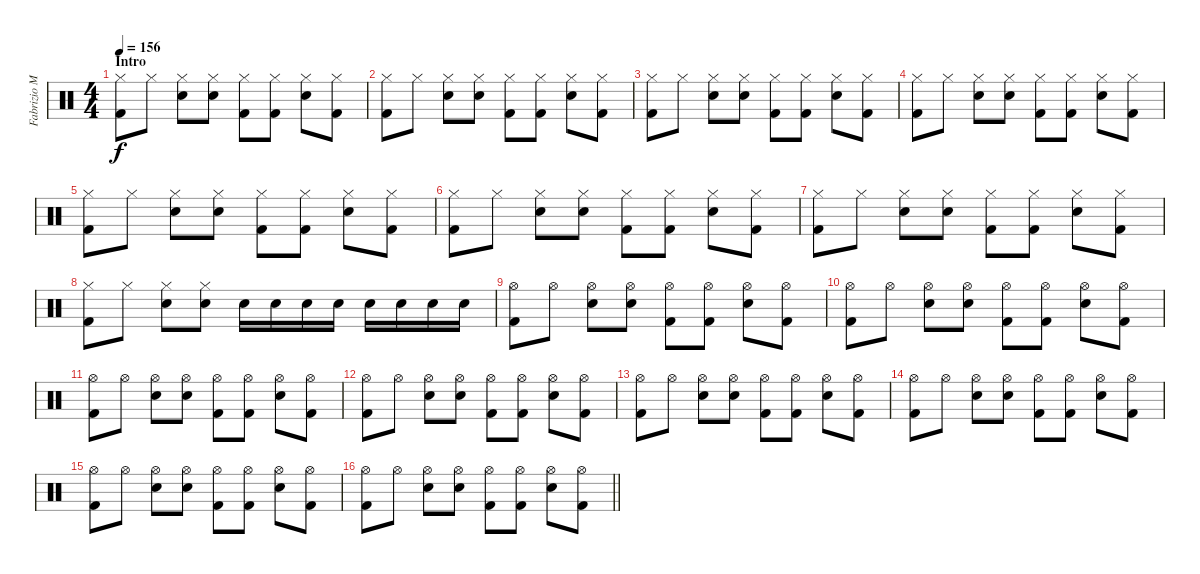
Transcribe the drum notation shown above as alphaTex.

\track ("Fabrizio Moretti" "Fabrizio M") {instrument percussion}
\staff {score}
\articulation defaults
\ts (4 4)
\section ("" "Intro")
\tempo 156
\clef neutral
\ks c
("Hi-Hat (closed)" "Kick (hit) 2").8{dy f} "Hi-Hat (closed)".8 ("Hi-Hat (closed)" "Snare (hit) 2").8 ("Hi-Hat (closed)" "Snare (hit) 2").8 ("Hi-Hat (closed)" "Kick (hit) 2").8 ("Hi-Hat (closed)" "Kick (hit) 2").8 ("Hi-Hat (closed)" "Snare (hit) 2").8 ("Hi-Hat (closed)" "Kick (hit) 2").8 |
("Hi-Hat (closed)" "Kick (hit) 2").8 "Hi-Hat (closed)".8 ("Hi-Hat (closed)" "Snare (hit) 2").8 ("Hi-Hat (closed)" "Snare (hit) 2").8 ("Hi-Hat (closed)" "Kick (hit) 2").8 ("Hi-Hat (closed)" "Kick (hit) 2").8 ("Hi-Hat (closed)" "Snare (hit) 2").8 ("Hi-Hat (closed)" "Kick (hit) 2").8 |
("Hi-Hat (closed)" "Kick (hit) 2").8 "Hi-Hat (closed)".8 ("Hi-Hat (closed)" "Snare (hit) 2").8 ("Hi-Hat (closed)" "Snare (hit) 2").8 ("Hi-Hat (closed)" "Kick (hit) 2").8 ("Hi-Hat (closed)" "Kick (hit) 2").8 ("Hi-Hat (closed)" "Snare (hit) 2").8 ("Hi-Hat (closed)" "Kick (hit) 2").8 |
("Hi-Hat (closed)" "Kick (hit) 2").8 "Hi-Hat (closed)".8 ("Hi-Hat (closed)" "Snare (hit) 2").8 ("Hi-Hat (closed)" "Snare (hit) 2").8 ("Hi-Hat (closed)" "Kick (hit) 2").8 ("Hi-Hat (closed)" "Kick (hit) 2").8 ("Hi-Hat (closed)" "Snare (hit) 2").8 ("Hi-Hat (closed)" "Kick (hit) 2").8 |
("Hi-Hat (closed)" "Kick (hit) 2").8 "Hi-Hat (closed)".8 ("Hi-Hat (closed)" "Snare (hit) 2").8 ("Hi-Hat (closed)" "Snare (hit) 2").8 ("Hi-Hat (closed)" "Kick (hit) 2").8 ("Hi-Hat (closed)" "Kick (hit) 2").8 ("Hi-Hat (closed)" "Snare (hit) 2").8 ("Hi-Hat (closed)" "Kick (hit) 2").8 |
("Hi-Hat (closed)" "Kick (hit) 2").8 "Hi-Hat (closed)".8 ("Hi-Hat (closed)" "Snare (hit) 2").8 ("Hi-Hat (closed)" "Snare (hit) 2").8 ("Hi-Hat (closed)" "Kick (hit) 2").8 ("Hi-Hat (closed)" "Kick (hit) 2").8 ("Hi-Hat (closed)" "Snare (hit) 2").8 ("Hi-Hat (closed)" "Kick (hit) 2").8 |
("Hi-Hat (closed)" "Kick (hit) 2").8 "Hi-Hat (closed)".8 ("Hi-Hat (closed)" "Snare (hit) 2").8 ("Hi-Hat (closed)" "Snare (hit) 2").8 ("Hi-Hat (closed)" "Kick (hit) 2").8 ("Hi-Hat (closed)" "Kick (hit) 2").8 ("Hi-Hat (closed)" "Snare (hit) 2").8 ("Hi-Hat (closed)" "Kick (hit) 2").8 |
("Hi-Hat (closed)" "Kick (hit) 2").8 "Hi-Hat (closed)".8 ("Hi-Hat (closed)" "Snare (hit) 2").8 ("Hi-Hat (closed)" "Snare (hit) 2").8 "Snare (hit) 2".16 "Snare (hit) 2".16 "Snare (hit) 2".16 "Snare (hit) 2".16 "Snare (hit) 2".16 "Snare (hit) 2".16 "Snare (hit) 2".16 "Snare (hit) 2".16 |
("Hi-Hat (open)" "Kick (hit) 2").8 "Hi-Hat (open)".8 ("Hi-Hat (open)" "Snare (hit) 2").8 ("Hi-Hat (open)" "Snare (hit) 2").8 ("Hi-Hat (open)" "Kick (hit) 2").8 ("Hi-Hat (open)" "Kick (hit) 2").8 ("Hi-Hat (open)" "Snare (hit) 2").8 ("Hi-Hat (open)" "Kick (hit) 2").8 |
("Hi-Hat (open)" "Kick (hit) 2").8 "Hi-Hat (open)".8 ("Hi-Hat (open)" "Snare (hit) 2").8 ("Hi-Hat (open)" "Snare (hit) 2").8 ("Hi-Hat (open)" "Kick (hit) 2").8 ("Hi-Hat (open)" "Kick (hit) 2").8 ("Hi-Hat (open)" "Snare (hit) 2").8 ("Hi-Hat (open)" "Kick (hit) 2").8 |
("Hi-Hat (open)" "Kick (hit) 2").8 "Hi-Hat (open)".8 ("Hi-Hat (open)" "Snare (hit) 2").8 ("Hi-Hat (open)" "Snare (hit) 2").8 ("Hi-Hat (open)" "Kick (hit) 2").8 ("Hi-Hat (open)" "Kick (hit) 2").8 ("Hi-Hat (open)" "Snare (hit) 2").8 ("Hi-Hat (open)" "Kick (hit) 2").8 |
("Hi-Hat (open)" "Kick (hit) 2").8 "Hi-Hat (open)".8 ("Hi-Hat (open)" "Snare (hit) 2").8 ("Hi-Hat (open)" "Snare (hit) 2").8 ("Hi-Hat (open)" "Kick (hit) 2").8 ("Hi-Hat (open)" "Kick (hit) 2").8 ("Hi-Hat (open)" "Snare (hit) 2").8 ("Hi-Hat (open)" "Kick (hit) 2").8 |
("Hi-Hat (open)" "Kick (hit) 2").8 "Hi-Hat (open)".8 ("Hi-Hat (open)" "Snare (hit) 2").8 ("Hi-Hat (open)" "Snare (hit) 2").8 ("Hi-Hat (open)" "Kick (hit) 2").8 ("Hi-Hat (open)" "Kick (hit) 2").8 ("Hi-Hat (open)" "Snare (hit) 2").8 ("Hi-Hat (open)" "Kick (hit) 2").8 |
("Hi-Hat (open)" "Kick (hit) 2").8 "Hi-Hat (open)".8 ("Hi-Hat (open)" "Snare (hit) 2").8 ("Hi-Hat (open)" "Snare (hit) 2").8 ("Hi-Hat (open)" "Kick (hit) 2").8 ("Hi-Hat (open)" "Kick (hit) 2").8 ("Hi-Hat (open)" "Snare (hit) 2").8 ("Hi-Hat (open)" "Kick (hit) 2").8 |
("Hi-Hat (open)" "Kick (hit) 2").8 "Hi-Hat (open)".8 ("Hi-Hat (open)" "Snare (hit) 2").8 ("Hi-Hat (open)" "Snare (hit) 2").8 ("Hi-Hat (open)" "Kick (hit) 2").8 ("Hi-Hat (open)" "Kick (hit) 2").8 ("Hi-Hat (open)" "Snare (hit) 2").8 ("Hi-Hat (open)" "Kick (hit) 2").8 |
\barLineRight lightlight
("Hi-Hat (open)" "Kick (hit) 2").8 "Hi-Hat (open)".8 ("Hi-Hat (open)" "Snare (hit) 2").8 ("Hi-Hat (open)" "Snare (hit) 2").8 ("Hi-Hat (open)" "Kick (hit) 2").8 ("Hi-Hat (open)" "Kick (hit) 2").8 ("Hi-Hat (open)" "Snare (hit) 2").8 ("Hi-Hat (open)" "Kick (hit) 2").8
